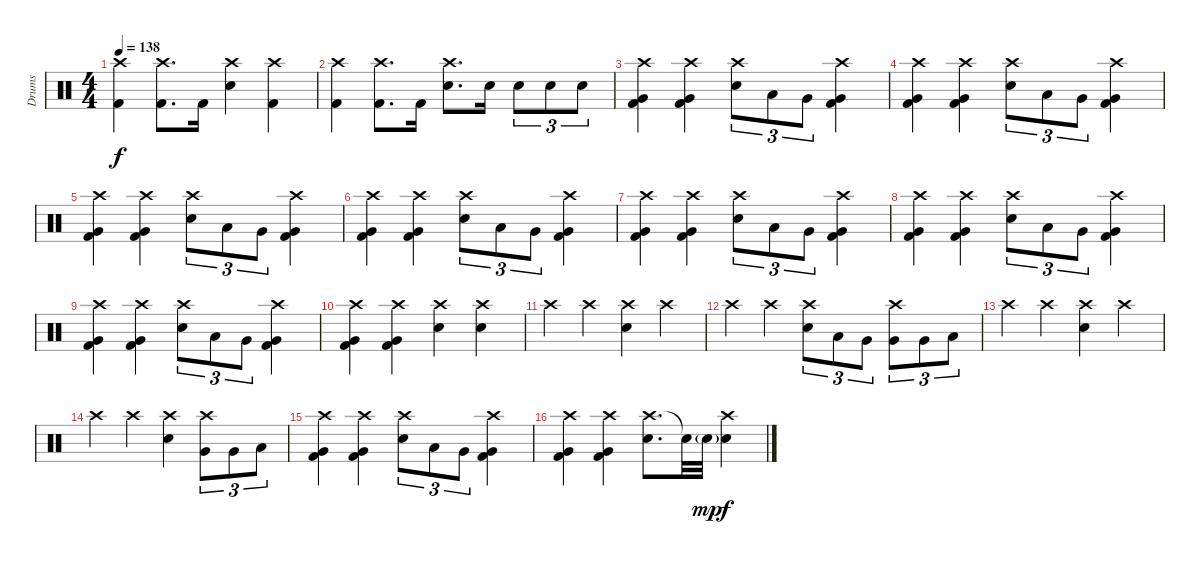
\track ("Drums" "Drums") {instrument percussion}
\staff {score}
\articulation defaults
\ts (4 4)
\tempo 138
\clef neutral
\ks c
("Crash high (hit)" "Kick (hit) 2").4{dy f} ("Crash high (hit)" "Kick (hit) 2").8{d} "Kick (hit) 2".16 ("Crash high (hit)" "Snare (hit) 2").4 ("Crash high (hit)" "Kick (hit) 2").4 |
("Crash high (hit)" "Kick (hit) 2").4 ("Crash high (hit)" "Kick (hit) 2").8{d} "Kick (hit) 2".16 ("Crash high (hit)" "Snare (hit) 2").8{d} "Snare (hit) 2".16 "Snare (hit) 2".8{tu (3 2)} "Snare (hit) 2".8{tu (3 2)} "Snare (hit) 2".8{tu (3 2)} |
("Crash high (hit)" "Very Low Tom (hit)" "Kick (hit) 2").4 ("Crash high (hit)" "Very Low Tom (hit)" "Kick (hit) 2").4 ("Crash high (hit)" "Snare (hit) 2").8{tu (3 2)} "Low Tom (hit)".8{tu (3 2)} "Very Low Tom (hit)".8{tu (3 2)} ("Crash high (hit)" "Very Low Tom (hit)" "Kick (hit) 2").4 |
("Crash high (hit)" "Very Low Tom (hit)" "Kick (hit) 2").4 ("Crash high (hit)" "Very Low Tom (hit)" "Kick (hit) 2").4 ("Crash high (hit)" "Snare (hit) 2").8{tu (3 2)} "Low Tom (hit)".8{tu (3 2)} "Very Low Tom (hit)".8{tu (3 2)} ("Crash high (hit)" "Very Low Tom (hit)" "Kick (hit) 2").4 |
("Crash high (hit)" "Very Low Tom (hit)" "Kick (hit) 2").4 ("Crash high (hit)" "Very Low Tom (hit)" "Kick (hit) 2").4 ("Crash high (hit)" "Snare (hit) 2").8{tu (3 2)} "Low Tom (hit)".8{tu (3 2)} "Very Low Tom (hit)".8{tu (3 2)} ("Crash high (hit)" "Very Low Tom (hit)" "Kick (hit) 2").4 |
("Crash high (hit)" "Very Low Tom (hit)" "Kick (hit) 2").4 ("Crash high (hit)" "Very Low Tom (hit)" "Kick (hit) 2").4 ("Crash high (hit)" "Snare (hit) 2").8{tu (3 2)} "Low Tom (hit)".8{tu (3 2)} "Very Low Tom (hit)".8{tu (3 2)} ("Crash high (hit)" "Very Low Tom (hit)" "Kick (hit) 2").4 |
("Crash high (hit)" "Very Low Tom (hit)" "Kick (hit) 2").4 ("Crash high (hit)" "Very Low Tom (hit)" "Kick (hit) 2").4 ("Crash high (hit)" "Snare (hit) 2").8{tu (3 2)} "Low Tom (hit)".8{tu (3 2)} "Very Low Tom (hit)".8{tu (3 2)} ("Crash high (hit)" "Very Low Tom (hit)" "Kick (hit) 2").4 |
("Crash high (hit)" "Very Low Tom (hit)" "Kick (hit) 2").4 ("Crash high (hit)" "Very Low Tom (hit)" "Kick (hit) 2").4 ("Crash high (hit)" "Snare (hit) 2").8{tu (3 2)} "Low Tom (hit)".8{tu (3 2)} "Very Low Tom (hit)".8{tu (3 2)} ("Crash high (hit)" "Very Low Tom (hit)" "Kick (hit) 2").4 |
("Crash high (hit)" "Very Low Tom (hit)" "Kick (hit) 2").4 ("Crash high (hit)" "Very Low Tom (hit)" "Kick (hit) 2").4 ("Crash high (hit)" "Snare (hit) 2").8{tu (3 2)} "Low Tom (hit)".8{tu (3 2)} "Very Low Tom (hit)".8{tu (3 2)} ("Crash high (hit)" "Very Low Tom (hit)" "Kick (hit) 2").4 |
("Crash high (hit)" "Very Low Tom (hit)" "Kick (hit) 2").4 ("Crash high (hit)" "Very Low Tom (hit)" "Kick (hit) 2").4 ("Crash high (hit)" "Snare (hit) 2").4 ("Crash high (hit)" "Snare (hit) 2").4 |
"Crash high (hit)".4 "Crash high (hit)".4 ("Crash high (hit)" "Snare (hit) 2").4 "Crash high (hit)".4 |
"Crash high (hit)".4 "Crash high (hit)".4 ("Crash high (hit)" "Snare (hit) 2").8{tu (3 2)} "Low Tom (hit)".8{tu (3 2)} "Very Low Tom (hit)".8{tu (3 2)} ("Crash high (hit)" "Very Low Tom (hit)").8{tu (3 2)} "Very Low Tom (hit)".8{tu (3 2)} "Low Floor Tom (hit)".8{tu (3 2)} |
"Crash high (hit)".4 "Crash high (hit)".4 ("Crash high (hit)" "Snare (hit) 2").4 "Crash high (hit)".4 |
"Crash high (hit)".4 "Crash high (hit)".4 ("Crash high (hit)" "Snare (hit) 2").4 ("Crash high (hit)" "Very Low Tom (hit)").8{tu (3 2)} "Very Low Tom (hit)".8{tu (3 2)} "Low Floor Tom (hit)".8{tu (3 2)} |
("Crash high (hit)" "Very Low Tom (hit)" "Kick (hit) 2").4 ("Crash high (hit)" "Very Low Tom (hit)" "Kick (hit) 2").4 ("Crash high (hit)" "Snare (hit) 2").8{tu (3 2)} "Low Tom (hit)".8{tu (3 2)} "Very Low Tom (hit)".8{tu (3 2)} ("Crash high (hit)" "Very Low Tom (hit)" "Kick (hit) 2").4 |
("Crash high (hit)" "Very Low Tom (hit)" "Kick (hit) 2").4 ("Crash high (hit)" "Very Low Tom (hit)" "Kick (hit) 2").4 ("Crash high (hit)" "Snare (hit) 2").8{d} "Snare (hit) 2"{t}.32 "Snare (hit) 2"{g}.32{dy mp} ("Crash high (hit)" "Snare (hit) 2").4{dy f}
